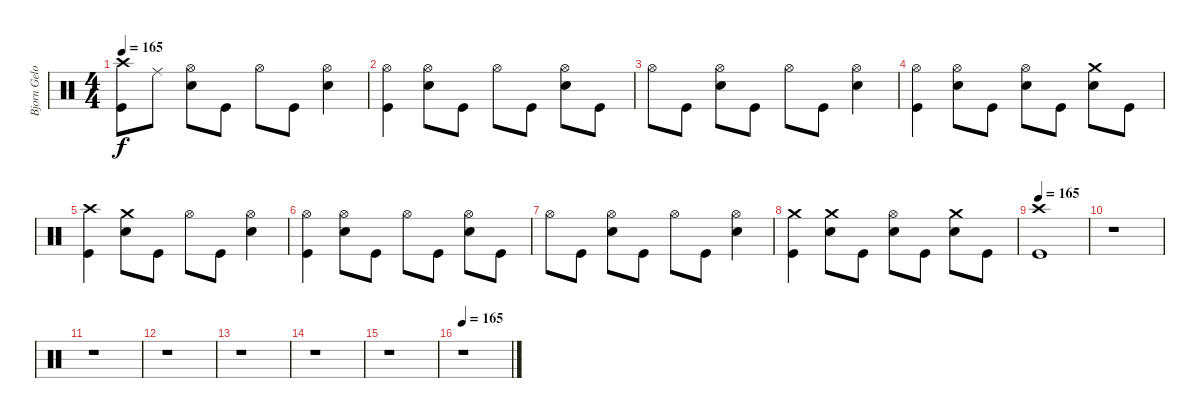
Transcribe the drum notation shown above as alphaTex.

\track ("Bjorn Gelotte-Drum" "Bjorn Gelo") {instrument percussion}
\staff {score}
\articulation defaults
\ts (4 4)
\tempo 165
\clef neutral
\ks c
("Crash high (hit)" "Kick (hit)").8{dy f} "Ride (middle)".8 ("Hi-Hat (open)" "Electric Snare (hit)").8 "Kick (hit)".8 "Hi-Hat (open)".8 "Kick (hit)".8 ("Hi-Hat (open)" "Electric Snare (hit)").4 |
("Hi-Hat (open)" "Kick (hit)").4 ("Hi-Hat (open)" "Electric Snare (hit)").8 "Kick (hit)".8 "Hi-Hat (open)".8 "Kick (hit)".8 ("Hi-Hat (open)" "Electric Snare (hit)").8 "Kick (hit)".8 |
"Hi-Hat (open)".8 "Kick (hit)".8 ("Hi-Hat (open)" "Electric Snare (hit)").8 "Kick (hit)".8 "Hi-Hat (open)".8 "Kick (hit)".8 ("Hi-Hat (open)" "Electric Snare (hit)").4 |
("Hi-Hat (open)" "Kick (hit)").4 ("Hi-Hat (open)" "Electric Snare (hit)").8 "Kick (hit)".8 ("Hi-Hat (open)" "Electric Snare (hit)").8 "Kick (hit)".8 ("Crash medium (hit)" "Electric Snare (hit)").8 "Kick (hit)".8 |
("Crash high (hit)" "Kick (hit)").4 ("Crash medium (hit)" "Electric Snare (hit)").8 "Kick (hit)".8 "Hi-Hat (open)".8 "Kick (hit)".8 ("Hi-Hat (open)" "Electric Snare (hit)").4 |
("Hi-Hat (open)" "Kick (hit)").4 ("Hi-Hat (open)" "Electric Snare (hit)").8 "Kick (hit)".8 "Hi-Hat (open)".8 "Kick (hit)".8 ("Hi-Hat (open)" "Electric Snare (hit)").8 "Kick (hit)".8 |
"Hi-Hat (open)".8 "Kick (hit)".8 ("Hi-Hat (open)" "Electric Snare (hit)").8 "Kick (hit)".8 "Hi-Hat (open)".8 "Kick (hit)".8 ("Hi-Hat (open)" "Electric Snare (hit)").4 |
("Crash medium (hit)" "Kick (hit)").4 ("Crash medium (hit)" "Electric Snare (hit)").8 "Kick (hit)".8 ("Hi-Hat (open)" "Electric Snare (hit)").8 "Kick (hit)".8 ("Crash medium (hit)" "Electric Snare (hit)").8 "Kick (hit)".8 |
\tempo 165
("Crash high (hit)" "Kick (hit)").1 |
r.1 |
r.1 |
r.1 |
r.1 |
r.1 |
r.1 |
\tempo 165
r.1
